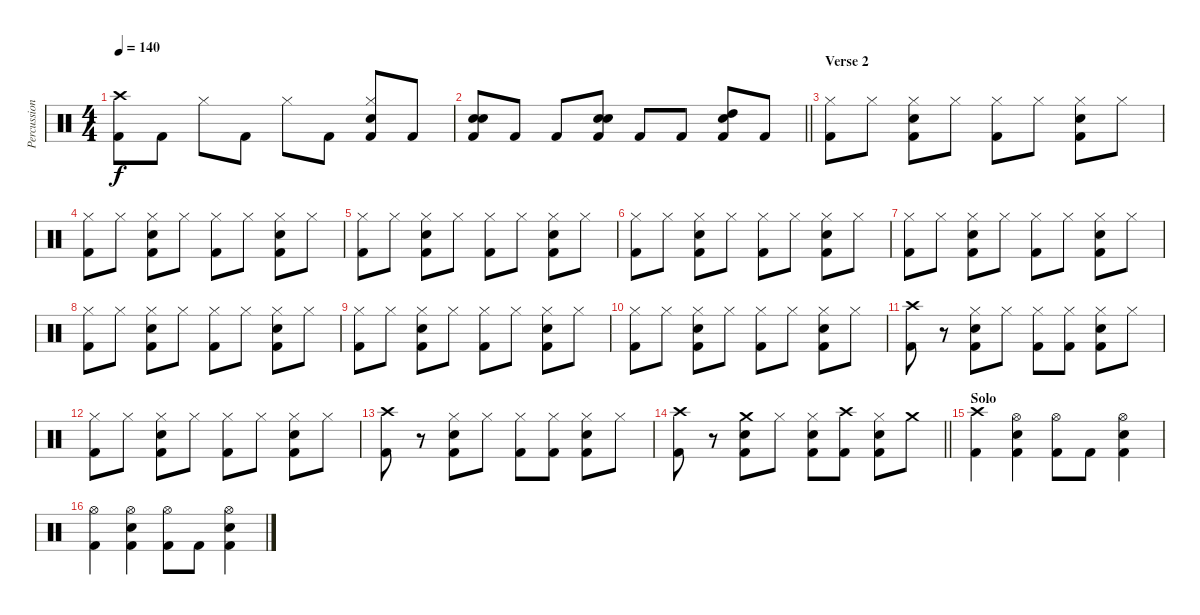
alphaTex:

\track ("Percussions" "Percussion") {instrument percussion}
\staff {score}
\articulation defaults
\ts (4 4)
\tempo 140
\clef neutral
\ks c
("Crash high (hit)" "Kick (hit) 2").8{dy f} "Kick (hit) 2".8 "Hi-Hat (closed)".8 "Kick (hit) 2".8 "Hi-Hat (closed)".8 "Kick (hit) 2".8 ("Hi-Hat (closed)" "Electric Snare (hit)" "Kick (hit) 2").8 "Kick (hit) 2".8 |
\barLineRight lightlight
("Snare (hit) 2" "Electric Snare (hit)" "Kick (hit) 2").8 "Kick (hit) 2".8 "Kick (hit) 2".8 ("Snare (hit) 2" "Electric Snare (hit)" "Kick (hit) 2").8 "Kick (hit) 2".8 "Kick (hit) 2".8 ("Electric Snare (hit)" "High Tom (hit)" "Kick (hit) 2").8 "Kick (hit) 2".8 |
\section ("" "Verse 2")
("Hi-Hat (closed)" "Kick (hit) 2").8 "Hi-Hat (closed)".8 ("Hi-Hat (closed)" "Snare (hit) 2" "Kick (hit) 2").8 "Hi-Hat (closed)".8 ("Hi-Hat (closed)" "Kick (hit) 2").8 "Hi-Hat (closed)".8 ("Hi-Hat (closed)" "Snare (hit) 2" "Kick (hit) 2").8 "Hi-Hat (closed)".8 |
("Hi-Hat (closed)" "Kick (hit) 2").8 "Hi-Hat (closed)".8 ("Hi-Hat (closed)" "Snare (hit) 2" "Kick (hit) 2").8 "Hi-Hat (closed)".8 ("Hi-Hat (closed)" "Kick (hit) 2").8 "Hi-Hat (closed)".8 ("Hi-Hat (closed)" "Snare (hit) 2" "Kick (hit) 2").8 "Hi-Hat (closed)".8 |
("Hi-Hat (closed)" "Kick (hit) 2").8 "Hi-Hat (closed)".8 ("Hi-Hat (closed)" "Snare (hit) 2" "Kick (hit) 2").8 "Hi-Hat (closed)".8 ("Hi-Hat (closed)" "Kick (hit) 2").8 "Hi-Hat (closed)".8 ("Hi-Hat (closed)" "Snare (hit) 2" "Kick (hit) 2").8 "Hi-Hat (closed)".8 |
("Hi-Hat (closed)" "Kick (hit) 2").8 "Hi-Hat (closed)".8 ("Hi-Hat (closed)" "Snare (hit) 2" "Kick (hit) 2").8 "Hi-Hat (closed)".8 ("Hi-Hat (closed)" "Kick (hit) 2").8 "Hi-Hat (closed)".8 ("Hi-Hat (closed)" "Snare (hit) 2" "Kick (hit) 2").8 "Hi-Hat (closed)".8 |
("Hi-Hat (closed)" "Kick (hit) 2").8 "Hi-Hat (closed)".8 ("Hi-Hat (closed)" "Snare (hit) 2" "Kick (hit) 2").8 "Hi-Hat (closed)".8 ("Hi-Hat (closed)" "Kick (hit) 2").8 "Hi-Hat (closed)".8 ("Hi-Hat (closed)" "Snare (hit) 2" "Kick (hit) 2").8 "Hi-Hat (closed)".8 |
("Hi-Hat (closed)" "Kick (hit) 2").8 "Hi-Hat (closed)".8 ("Hi-Hat (closed)" "Snare (hit) 2" "Kick (hit) 2").8 "Hi-Hat (closed)".8 ("Hi-Hat (closed)" "Kick (hit) 2").8 "Hi-Hat (closed)".8 ("Hi-Hat (closed)" "Snare (hit) 2" "Kick (hit) 2").8 "Hi-Hat (closed)".8 |
("Hi-Hat (closed)" "Kick (hit) 2").8 "Hi-Hat (closed)".8 ("Hi-Hat (closed)" "Snare (hit) 2" "Kick (hit) 2").8 "Hi-Hat (closed)".8 ("Hi-Hat (closed)" "Kick (hit) 2").8 "Hi-Hat (closed)".8 ("Hi-Hat (closed)" "Snare (hit) 2" "Kick (hit) 2").8 "Hi-Hat (closed)".8 |
("Hi-Hat (closed)" "Kick (hit) 2").8 "Hi-Hat (closed)".8 ("Hi-Hat (closed)" "Snare (hit) 2" "Kick (hit) 2").8 "Hi-Hat (closed)".8 ("Hi-Hat (closed)" "Kick (hit) 2").8 "Hi-Hat (closed)".8 ("Hi-Hat (closed)" "Snare (hit) 2" "Kick (hit) 2").8 "Hi-Hat (closed)".8 |
("Crash high (hit)" "Kick (hit) 2").8 r.8 ("Hi-Hat (closed)" "Snare (hit) 2" "Kick (hit) 2").8 "Hi-Hat (closed)".8 ("Hi-Hat (closed)" "Kick (hit) 2").8 ("Hi-Hat (closed)" "Kick (hit) 2").8 ("Hi-Hat (closed)" "Snare (hit) 2" "Kick (hit) 2").8 "Hi-Hat (closed)".8 |
("Hi-Hat (closed)" "Kick (hit) 2").8 "Hi-Hat (closed)".8 ("Hi-Hat (closed)" "Snare (hit) 2" "Kick (hit) 2").8 "Hi-Hat (closed)".8 ("Hi-Hat (closed)" "Kick (hit) 2").8 "Hi-Hat (closed)".8 ("Hi-Hat (closed)" "Snare (hit) 2" "Kick (hit) 2").8 "Hi-Hat (closed)".8 |
("Crash high (hit)" "Kick (hit) 2").8 r.8 ("Hi-Hat (closed)" "Snare (hit) 2" "Kick (hit) 2").8 "Hi-Hat (closed)".8 ("Hi-Hat (closed)" "Kick (hit) 2").8 ("Hi-Hat (closed)" "Kick (hit) 2").8 ("Hi-Hat (closed)" "Snare (hit) 2" "Kick (hit) 2").8 "Hi-Hat (closed)".8 |
\barLineRight lightlight
("Crash high (hit)" "Kick (hit) 2").8 r.8 ("Crash medium (hit)" "Snare (hit) 2" "Kick (hit) 2").8 "Hi-Hat (closed)".8 ("Hi-Hat (closed)" "Snare (hit) 2" "Kick (hit) 2").8 ("Crash high (hit)" "Kick (hit) 2").8 ("Hi-Hat (closed)" "Snare (hit) 2" "Kick (hit) 2").8 "Crash medium (hit)".8 |
\section ("" "Solo")
("Crash high (hit)" "Kick (hit) 2").4 ("Hi-Hat (open)" "Electric Snare (hit)" "Kick (hit) 2").4 ("Hi-Hat (open)" "Kick (hit) 2").8 "Kick (hit) 2".8 ("Hi-Hat (open)" "Electric Snare (hit)" "Kick (hit) 2").4 |
("Hi-Hat (open)" "Kick (hit) 2").4 ("Hi-Hat (open)" "Electric Snare (hit)" "Kick (hit) 2").4 ("Hi-Hat (open)" "Kick (hit) 2").8 "Kick (hit) 2".8 ("Hi-Hat (open)" "Electric Snare (hit)" "Kick (hit) 2").4
